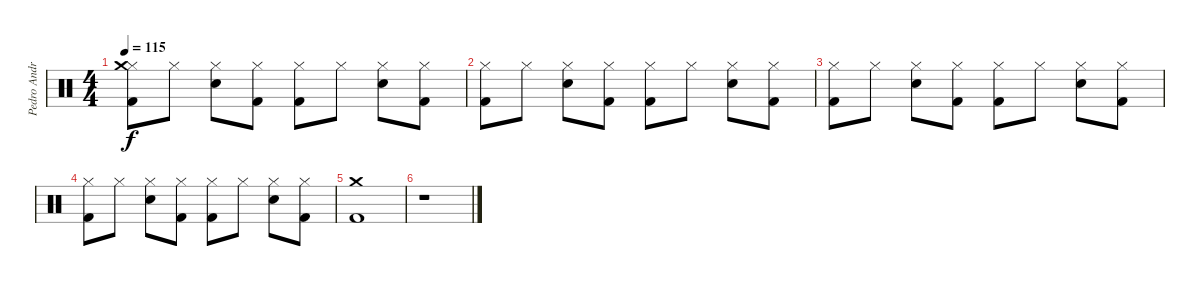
\track ("Pedro Andreu" "Pedro Andr") {instrument percussion}
\staff {score}
\articulation defaults
\ts (4 4)
\tempo 115
\clef neutral
\ks c
("Hi-Hat (closed)" "Crash medium (hit)" "Kick (hit) 2").8{dy f} "Hi-Hat (closed)".8 ("Hi-Hat (closed)" "Snare (hit) 2").8 ("Hi-Hat (closed)" "Kick (hit) 2").8 ("Hi-Hat (closed)" "Kick (hit) 2").8 "Hi-Hat (closed)".8 ("Hi-Hat (closed)" "Snare (hit) 2").8 ("Hi-Hat (closed)" "Kick (hit) 2").8 |
("Hi-Hat (closed)" "Kick (hit) 2").8 "Hi-Hat (closed)".8 ("Hi-Hat (closed)" "Snare (hit) 2").8 ("Hi-Hat (closed)" "Kick (hit) 2").8 ("Hi-Hat (closed)" "Kick (hit) 2").8 "Hi-Hat (closed)".8 ("Hi-Hat (closed)" "Snare (hit) 2").8 ("Hi-Hat (closed)" "Kick (hit) 2").8 |
("Hi-Hat (closed)" "Kick (hit) 2").8 "Hi-Hat (closed)".8 ("Hi-Hat (closed)" "Snare (hit) 2").8 ("Hi-Hat (closed)" "Kick (hit) 2").8 ("Hi-Hat (closed)" "Kick (hit) 2").8 "Hi-Hat (closed)".8 ("Hi-Hat (closed)" "Snare (hit) 2").8 ("Hi-Hat (closed)" "Kick (hit) 2").8 |
("Hi-Hat (closed)" "Kick (hit) 2").8 "Hi-Hat (closed)".8 ("Hi-Hat (closed)" "Snare (hit) 2").8 ("Hi-Hat (closed)" "Kick (hit) 2").8 ("Hi-Hat (closed)" "Kick (hit) 2").8 "Hi-Hat (closed)".8 ("Hi-Hat (closed)" "Snare (hit) 2").8 ("Hi-Hat (closed)" "Kick (hit) 2").8 |
("Crash medium (hit)" "Kick (hit) 2").1 |
r.1
